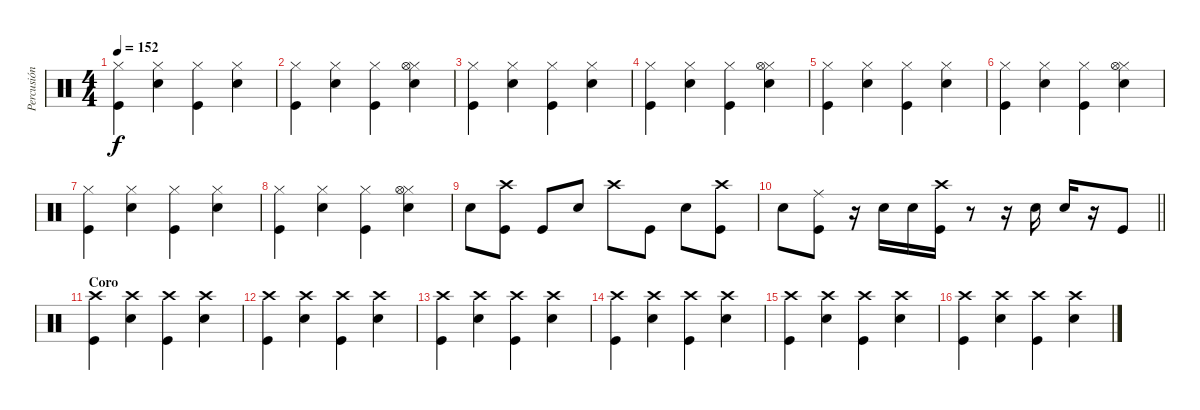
\track ("Percusión" "Percusión") {instrument percussion}
\staff {score}
\articulation defaults
\ts (4 4)
\tempo 152
\clef neutral
\ks c
("Hi-Hat (closed)" "Kick (hit)").4{dy f} ("Hi-Hat (closed)" "Snare (hit) 2").4 ("Hi-Hat (closed)" "Kick (hit)").4 ("Hi-Hat (closed)" "Snare (hit) 2").4 |
("Hi-Hat (closed)" "Kick (hit)").4 ("Hi-Hat (closed)" "Snare (hit) 2").4 ("Hi-Hat (closed)" "Kick (hit)").4 ("Hi-Hat (closed)" "Snare (hit) 2" "Hi-Hat (open)").4 |
("Hi-Hat (closed)" "Kick (hit)").4 ("Hi-Hat (closed)" "Snare (hit) 2").4 ("Hi-Hat (closed)" "Kick (hit)").4 ("Hi-Hat (closed)" "Snare (hit) 2").4 |
("Hi-Hat (closed)" "Kick (hit)").4 ("Hi-Hat (closed)" "Snare (hit) 2").4 ("Hi-Hat (closed)" "Kick (hit)").4 ("Hi-Hat (closed)" "Snare (hit) 2" "Hi-Hat (open)").4 |
("Hi-Hat (closed)" "Kick (hit)").4 ("Hi-Hat (closed)" "Snare (hit) 2").4 ("Hi-Hat (closed)" "Kick (hit)").4 ("Hi-Hat (closed)" "Snare (hit) 2").4 |
("Hi-Hat (closed)" "Kick (hit)").4 ("Hi-Hat (closed)" "Snare (hit) 2").4 ("Hi-Hat (closed)" "Kick (hit)").4 ("Hi-Hat (closed)" "Snare (hit) 2" "Hi-Hat (open)").4 |
("Hi-Hat (closed)" "Kick (hit)").4 ("Hi-Hat (closed)" "Snare (hit) 2").4 ("Hi-Hat (closed)" "Kick (hit)").4 ("Hi-Hat (closed)" "Snare (hit) 2").4 |
("Hi-Hat (closed)" "Kick (hit)").4 ("Hi-Hat (closed)" "Snare (hit) 2").4 ("Hi-Hat (closed)" "Kick (hit)").4 ("Hi-Hat (closed)" "Snare (hit) 2" "Hi-Hat (open)").4 |
"Snare (hit) 2".8 ("Kick (hit)" "Crash high (hit)").8 "Kick (hit)".8 "Snare (hit) 2".8 "Crash high (hit)".8 "Kick (hit)".8 "Snare (hit) 2".8 ("Kick (hit)" "Crash high (hit)").8 |
\barLineRight lightlight "Snare (hit) 2".8
("Kick (hit)" "Ride (middle)").8 r.16 "Snare (hit) 2".16 "Snare (hit) 2".16 ("Kick (hit)" "Crash high (hit)").16 r.8 r.16 "Snare (hit) 2".16 "Snare (hit) 2".16 r.16 "Kick (hit)".8 |
\section ("" "Coro")
("Kick (hit)" "Crash high (hit)").4 ("Crash high (hit)" "Snare (hit) 2").4 ("Crash high (hit)" "Kick (hit)").4 ("Crash high (hit)" "Snare (hit) 2").4 |
("Crash high (hit)" "Kick (hit)").4 ("Crash high (hit)" "Snare (hit) 2").4 ("Crash high (hit)" "Kick (hit)").4 ("Crash high (hit)" "Snare (hit) 2").4 |
("Crash high (hit)" "Kick (hit)").4 ("Snare (hit) 2" "Crash high (hit)").4 ("Crash high (hit)" "Kick (hit)").4 ("Crash high (hit)" "Snare (hit) 2").4 |
("Crash high (hit)" "Kick (hit)").4 ("Crash high (hit)" "Snare (hit) 2").4 ("Crash high (hit)" "Kick (hit)").4 ("Crash high (hit)" "Snare (hit) 2").4 |
("Crash high (hit)" "Kick (hit)").4 ("Crash high (hit)" "Snare (hit) 2").4 ("Crash high (hit)" "Kick (hit)").4 ("Crash high (hit)" "Snare (hit) 2").4 |
("Crash high (hit)" "Kick (hit)").4 ("Crash high (hit)" "Snare (hit) 2").4 ("Crash high (hit)" "Kick (hit)").4 ("Crash high (hit)" "Snare (hit) 2").4
